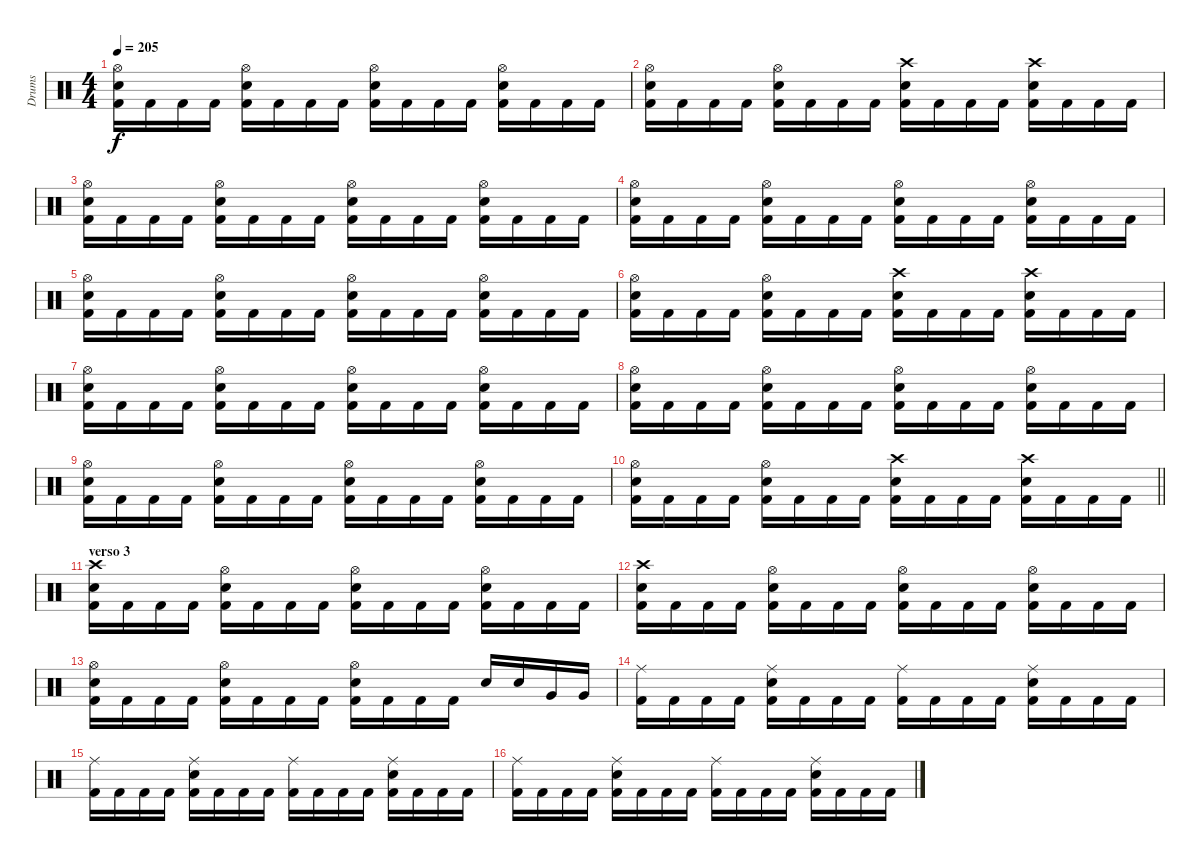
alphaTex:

\track ("Drums" "Drums") {instrument percussion}
\staff {score}
\articulation defaults
\ts (4 4)
\tempo 205
\clef neutral
\ks c
("Kick (hit) 2" "Electric Snare (hit)" "Hi-Hat (open)").16{dy f} "Kick (hit) 2".16 "Kick (hit) 2".16 "Kick (hit) 2".16 ("Kick (hit) 2" "Electric Snare (hit)" "Hi-Hat (open)").16 "Kick (hit) 2".16 "Kick (hit) 2".16 "Kick (hit) 2".16 ("Kick (hit) 2" "Electric Snare (hit)" "Hi-Hat (open)").16 "Kick (hit) 2".16 "Kick (hit) 2".16 "Kick (hit) 2".16 ("Kick (hit) 2" "Electric Snare (hit)" "Hi-Hat (open)").16 "Kick (hit) 2".16 "Kick (hit) 2".16 "Kick (hit) 2".16 |
("Kick (hit) 2" "Electric Snare (hit)" "Hi-Hat (open)").16 "Kick (hit) 2".16 "Kick (hit) 2".16 "Kick (hit) 2".16 ("Kick (hit) 2" "Electric Snare (hit)" "Hi-Hat (open)").16 "Kick (hit) 2".16 "Kick (hit) 2".16 "Kick (hit) 2".16 ("Kick (hit) 2" "Electric Snare (hit)" "Crash high (hit)").16 "Kick (hit) 2".16 "Kick (hit) 2".16 "Kick (hit) 2".16 ("Kick (hit) 2" "Electric Snare (hit)" "Crash high (hit)").16 "Kick (hit) 2".16 "Kick (hit) 2".16 "Kick (hit) 2".16 |
("Kick (hit) 2" "Electric Snare (hit)" "Hi-Hat (open)").16 "Kick (hit) 2".16 "Kick (hit) 2".16 "Kick (hit) 2".16 ("Kick (hit) 2" "Electric Snare (hit)" "Hi-Hat (open)").16 "Kick (hit) 2".16 "Kick (hit) 2".16 "Kick (hit) 2".16 ("Kick (hit) 2" "Electric Snare (hit)" "Hi-Hat (open)").16 "Kick (hit) 2".16 "Kick (hit) 2".16 "Kick (hit) 2".16 ("Kick (hit) 2" "Electric Snare (hit)" "Hi-Hat (open)").16 "Kick (hit) 2".16 "Kick (hit) 2".16 "Kick (hit) 2".16 |
("Kick (hit) 2" "Electric Snare (hit)" "Hi-Hat (open)").16 "Kick (hit) 2".16 "Kick (hit) 2".16 "Kick (hit) 2".16 ("Kick (hit) 2" "Electric Snare (hit)" "Hi-Hat (open)").16 "Kick (hit) 2".16 "Kick (hit) 2".16 "Kick (hit) 2".16 ("Kick (hit) 2" "Electric Snare (hit)" "Hi-Hat (open)").16 "Kick (hit) 2".16 "Kick (hit) 2".16 "Kick (hit) 2".16 ("Kick (hit) 2" "Electric Snare (hit)" "Hi-Hat (open)").16 "Kick (hit) 2".16 "Kick (hit) 2".16 "Kick (hit) 2".16 |
("Kick (hit) 2" "Electric Snare (hit)" "Hi-Hat (open)").16 "Kick (hit) 2".16 "Kick (hit) 2".16 "Kick (hit) 2".16 ("Kick (hit) 2" "Electric Snare (hit)" "Hi-Hat (open)").16 "Kick (hit) 2".16 "Kick (hit) 2".16 "Kick (hit) 2".16 ("Kick (hit) 2" "Electric Snare (hit)" "Hi-Hat (open)").16 "Kick (hit) 2".16 "Kick (hit) 2".16 "Kick (hit) 2".16 ("Kick (hit) 2" "Electric Snare (hit)" "Hi-Hat (open)").16 "Kick (hit) 2".16 "Kick (hit) 2".16 "Kick (hit) 2".16 |
("Kick (hit) 2" "Electric Snare (hit)" "Hi-Hat (open)").16 "Kick (hit) 2".16 "Kick (hit) 2".16 "Kick (hit) 2".16 ("Kick (hit) 2" "Electric Snare (hit)" "Hi-Hat (open)").16 "Kick (hit) 2".16 "Kick (hit) 2".16 "Kick (hit) 2".16 ("Kick (hit) 2" "Electric Snare (hit)" "Crash high (hit)").16 "Kick (hit) 2".16 "Kick (hit) 2".16 "Kick (hit) 2".16 ("Kick (hit) 2" "Electric Snare (hit)" "Crash high (hit)").16 "Kick (hit) 2".16 "Kick (hit) 2".16 "Kick (hit) 2".16 |
("Kick (hit) 2" "Electric Snare (hit)" "Hi-Hat (open)").16 "Kick (hit) 2".16 "Kick (hit) 2".16 "Kick (hit) 2".16 ("Kick (hit) 2" "Electric Snare (hit)" "Hi-Hat (open)").16 "Kick (hit) 2".16 "Kick (hit) 2".16 "Kick (hit) 2".16 ("Kick (hit) 2" "Electric Snare (hit)" "Hi-Hat (open)").16 "Kick (hit) 2".16 "Kick (hit) 2".16 "Kick (hit) 2".16 ("Kick (hit) 2" "Electric Snare (hit)" "Hi-Hat (open)").16 "Kick (hit) 2".16 "Kick (hit) 2".16 "Kick (hit) 2".16 |
("Kick (hit) 2" "Electric Snare (hit)" "Hi-Hat (open)").16 "Kick (hit) 2".16 "Kick (hit) 2".16 "Kick (hit) 2".16 ("Kick (hit) 2" "Electric Snare (hit)" "Hi-Hat (open)").16 "Kick (hit) 2".16 "Kick (hit) 2".16 "Kick (hit) 2".16 ("Kick (hit) 2" "Electric Snare (hit)" "Hi-Hat (open)").16 "Kick (hit) 2".16 "Kick (hit) 2".16 "Kick (hit) 2".16 ("Kick (hit) 2" "Electric Snare (hit)" "Hi-Hat (open)").16 "Kick (hit) 2".16 "Kick (hit) 2".16 "Kick (hit) 2".16 |
("Kick (hit) 2" "Electric Snare (hit)" "Hi-Hat (open)").16 "Kick (hit) 2".16 "Kick (hit) 2".16 "Kick (hit) 2".16 ("Kick (hit) 2" "Electric Snare (hit)" "Hi-Hat (open)").16 "Kick (hit) 2".16 "Kick (hit) 2".16 "Kick (hit) 2".16 ("Kick (hit) 2" "Electric Snare (hit)" "Hi-Hat (open)").16 "Kick (hit) 2".16 "Kick (hit) 2".16 "Kick (hit) 2".16 ("Kick (hit) 2" "Electric Snare (hit)" "Hi-Hat (open)").16 "Kick (hit) 2".16 "Kick (hit) 2".16 "Kick (hit) 2".16 |
\barLineRight lightlight
("Kick (hit) 2" "Electric Snare (hit)" "Hi-Hat (open)").16 "Kick (hit) 2".16 "Kick (hit) 2".16 "Kick (hit) 2".16 ("Kick (hit) 2" "Electric Snare (hit)" "Hi-Hat (open)").16 "Kick (hit) 2".16 "Kick (hit) 2".16 "Kick (hit) 2".16 ("Kick (hit) 2" "Electric Snare (hit)" "Crash high (hit)").16 "Kick (hit) 2".16 "Kick (hit) 2".16 "Kick (hit) 2".16 ("Kick (hit) 2" "Electric Snare (hit)" "Crash high (hit)").16 "Kick (hit) 2".16 "Kick (hit) 2".16 "Kick (hit) 2".16 |
\section ("" "verso 3")
("Kick (hit) 2" "Crash high (hit)" "Electric Snare (hit)").16 "Kick (hit) 2".16 "Kick (hit) 2".16 "Kick (hit) 2".16 ("Kick (hit) 2" "Electric Snare (hit)" "Hi-Hat (open)").16 "Kick (hit) 2".16 "Kick (hit) 2".16 "Kick (hit) 2".16 ("Kick (hit) 2" "Electric Snare (hit)" "Hi-Hat (open)").16 "Kick (hit) 2".16 "Kick (hit) 2".16 "Kick (hit) 2".16 ("Kick (hit) 2" "Electric Snare (hit)" "Hi-Hat (open)").16 "Kick (hit) 2".16 "Kick (hit) 2".16 "Kick (hit) 2".16 |
("Kick (hit) 2" "Crash high (hit)" "Electric Snare (hit)").16 "Kick (hit) 2".16 "Kick (hit) 2".16 "Kick (hit) 2".16 ("Kick (hit) 2" "Electric Snare (hit)" "Hi-Hat (open)").16 "Kick (hit) 2".16 "Kick (hit) 2".16 "Kick (hit) 2".16 ("Kick (hit) 2" "Electric Snare (hit)" "Hi-Hat (open)").16 "Kick (hit) 2".16 "Kick (hit) 2".16 "Kick (hit) 2".16 ("Kick (hit) 2" "Electric Snare (hit)" "Hi-Hat (open)").16 "Kick (hit) 2".16 "Kick (hit) 2".16 "Kick (hit) 2".16 |
("Kick (hit) 2" "Hi-Hat (open)" "Electric Snare (hit)").16 "Kick (hit) 2".16 "Kick (hit) 2".16 "Kick (hit) 2".16 ("Kick (hit) 2" "Electric Snare (hit)" "Hi-Hat (open)").16 "Kick (hit) 2".16 "Kick (hit) 2".16 "Kick (hit) 2".16 ("Kick (hit) 2" "Electric Snare (hit)" "Hi-Hat (open)").16 "Kick (hit) 2".16 "Kick (hit) 2".16 "Kick (hit) 2".16 "Electric Snare (hit)".16 "Electric Snare (hit)".16 "Very Low Tom (hit)".16 "Very Low Tom (hit)".16 |
("Ride (middle)" "Kick (hit) 2").16 "Kick (hit) 2".16 "Kick (hit) 2".16 "Kick (hit) 2".16 ("Ride (middle)" "Electric Snare (hit)" "Kick (hit) 2").16 "Kick (hit) 2".16 "Kick (hit) 2".16 "Kick (hit) 2".16 ("Ride (middle)" "Kick (hit) 2").16 "Kick (hit) 2".16 "Kick (hit) 2".16 "Kick (hit) 2".16 ("Ride (middle)" "Electric Snare (hit)" "Kick (hit) 2").16 "Kick (hit) 2".16 "Kick (hit) 2".16 "Kick (hit) 2".16 |
("Ride (middle)" "Kick (hit) 2").16 "Kick (hit) 2".16 "Kick (hit) 2".16 "Kick (hit) 2".16 ("Ride (middle)" "Electric Snare (hit)" "Kick (hit) 2").16 "Kick (hit) 2".16 "Kick (hit) 2".16 "Kick (hit) 2".16 ("Ride (middle)" "Kick (hit) 2").16 "Kick (hit) 2".16 "Kick (hit) 2".16 "Kick (hit) 2".16 ("Ride (middle)" "Electric Snare (hit)" "Kick (hit) 2").16 "Kick (hit) 2".16 "Kick (hit) 2".16 "Kick (hit) 2".16 |
("Ride (middle)" "Kick (hit) 2").16 "Kick (hit) 2".16 "Kick (hit) 2".16 "Kick (hit) 2".16 ("Ride (middle)" "Electric Snare (hit)" "Kick (hit) 2").16 "Kick (hit) 2".16 "Kick (hit) 2".16 "Kick (hit) 2".16 ("Ride (middle)" "Kick (hit) 2").16 "Kick (hit) 2".16 "Kick (hit) 2".16 "Kick (hit) 2".16 ("Ride (middle)" "Electric Snare (hit)" "Kick (hit) 2").16 "Kick (hit) 2".16 "Kick (hit) 2".16 "Kick (hit) 2".16
